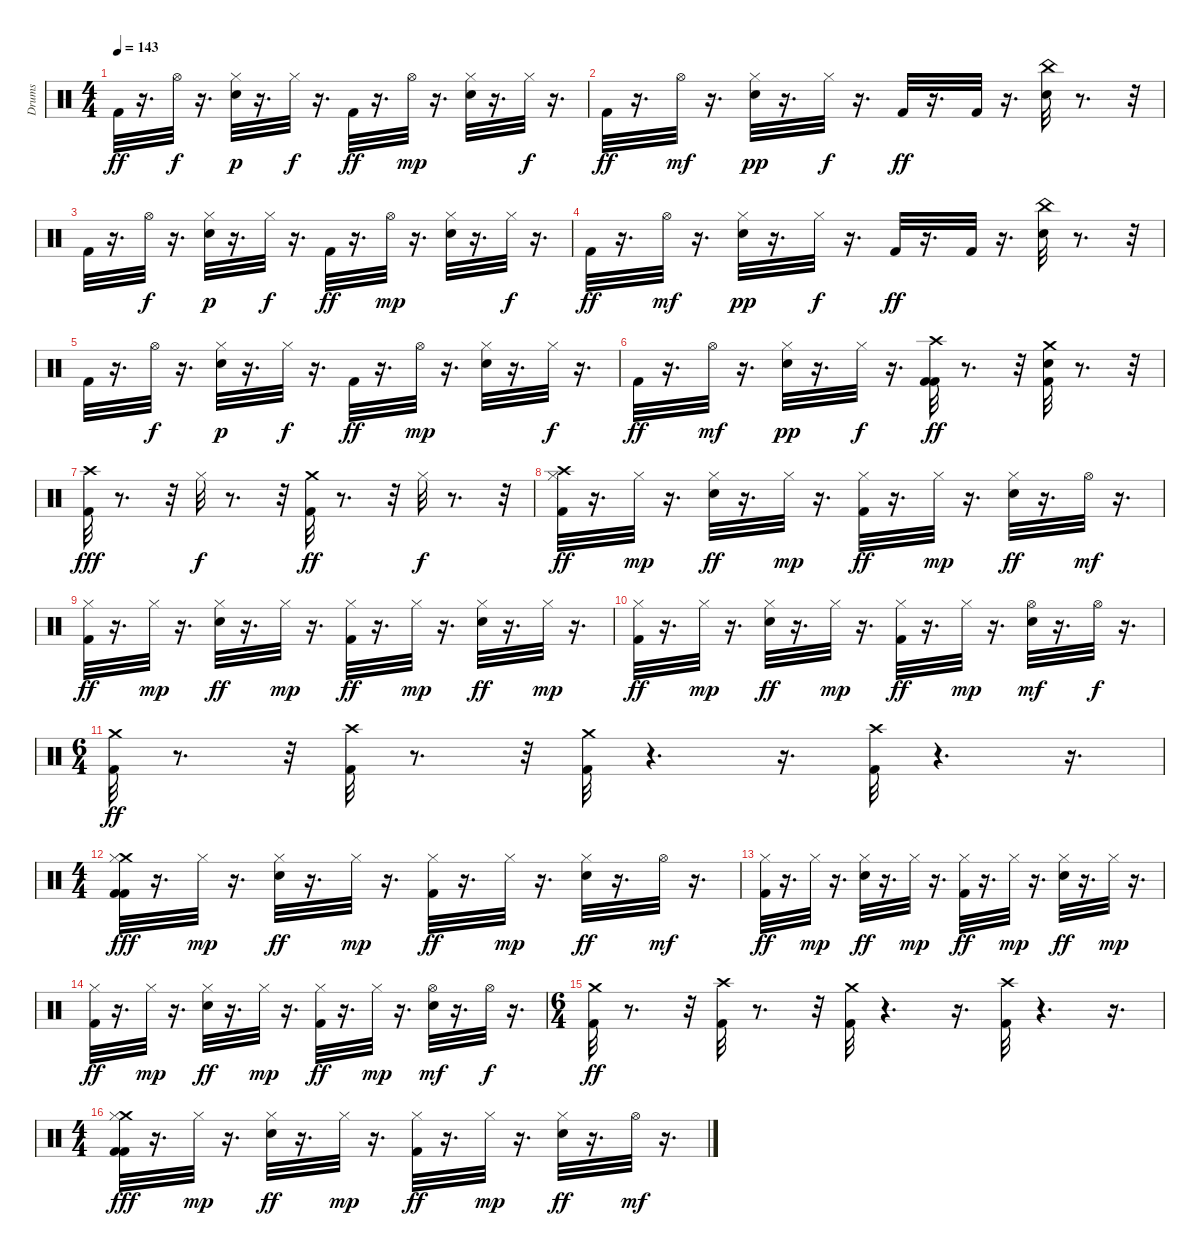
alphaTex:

\track ("Drums" "Drums") {instrument percussion}
\staff {score}
\articulation defaults
\ts (4 4)
\tempo 143
\clef neutral
\ks c "Kick (hit) 2".32{dy ff}
r.16{d} "Hi-Hat (open)".32{dy f} r.16{d} ("Snare (hit) 2" "Hi-Hat (closed)").32{dy p} r.16{d} "Hi-Hat (closed)".32{dy f} r.16{d} "Kick (hit) 2".32{dy ff} r.16{d} "Hi-Hat (open)".32{dy mp} r.16{d} ("Snare (hit) 2" "Hi-Hat (closed)").32 r.16{d} "Hi-Hat (closed)".32{dy f} r.16{d} |
"Kick (hit) 2".32{dy ff} r.16{d} "Hi-Hat (open)".32{dy mf} r.16{d} ("Snare (hit) 2" "Hi-Hat (closed)").32{dy pp} r.16{d} "Hi-Hat (closed)".32{dy f} r.16{d} "Kick (hit) 2".32{dy ff} r.16{d} "Kick (hit) 2".32 r.16{d} ("China (hit)" "Snare (hit) 2").32 r.8{d} r.32 |
"Kick (hit) 2".32 r.16{d} "Hi-Hat (open)".32{dy f} r.16{d} ("Snare (hit) 2" "Hi-Hat (closed)").32{dy p} r.16{d} "Hi-Hat (closed)".32{dy f} r.16{d} "Kick (hit) 2".32{dy ff} r.16{d} "Hi-Hat (open)".32{dy mp} r.16{d} ("Snare (hit) 2" "Hi-Hat (closed)").32 r.16{d} "Hi-Hat (closed)".32{dy f} r.16{d} |
"Kick (hit) 2".32{dy ff} r.16{d} "Hi-Hat (open)".32{dy mf} r.16{d} ("Snare (hit) 2" "Hi-Hat (closed)").32{dy pp} r.16{d} "Hi-Hat (closed)".32{dy f} r.16{d} "Kick (hit) 2".32{dy ff} r.16{d} "Kick (hit) 2".32 r.16{d} ("China (hit)" "Snare (hit) 2").32 r.8{d} r.32 |
"Kick (hit) 2".32 r.16{d} "Hi-Hat (open)".32{dy f} r.16{d} ("Snare (hit) 2" "Hi-Hat (closed)").32{dy p} r.16{d} "Hi-Hat (closed)".32{dy f} r.16{d} "Kick (hit) 2".32{dy ff} r.16{d} "Hi-Hat (open)".32{dy mp} r.16{d} ("Snare (hit) 2" "Hi-Hat (closed)").32 r.16{d} "Hi-Hat (closed)".32{dy f} r.16{d} |
"Kick (hit) 2".32{dy ff} r.16{d} "Hi-Hat (open)".32{dy mf} r.16{d} ("Snare (hit) 2" "Hi-Hat (closed)").32{dy pp} r.16{d} "Hi-Hat (closed)".32{dy f} r.16{d} ("Kick (hit) 2" "Kick (hit) 2" "Crash high (hit)").32{dy ff} r.8{d} r.32 ("Kick (hit) 2" "Crash medium (hit)" "Snare (hit) 2").32 r.8{d} r.32 |
("Kick (hit) 2" "Crash high (hit)").32{dy fff} r.8{d} r.32 "Hi-Hat (closed)".32{dy f} r.8{d} r.32 ("Kick (hit) 2" "Crash medium (hit)").32{dy ff} r.8{d} r.32 "Hi-Hat (closed)".32{dy f} r.8{d} r.32 |
("Kick (hit) 2" "Crash high (hit)" "Hi-Hat (closed)").32{dy ff} r.16{d} "Hi-Hat (closed)".32{dy mp} r.16{d} ("Snare (hit) 2" "Hi-Hat (closed)").32{dy ff} r.16{d} "Hi-Hat (closed)".32{dy mp} r.16{d} ("Kick (hit) 2" "Hi-Hat (closed)").32{dy ff} r.16{d} "Hi-Hat (closed)".32{dy mp} r.16{d} ("Snare (hit) 2" "Hi-Hat (closed)").32{dy ff} r.16{d} "Hi-Hat (open)".32{dy mf} r.16{d} |
("Kick (hit) 2" "Hi-Hat (closed)").32{dy ff} r.16{d} "Hi-Hat (closed)".32{dy mp} r.16{d} ("Snare (hit) 2" "Hi-Hat (closed)").32{dy ff} r.16{d} "Hi-Hat (closed)".32{dy mp} r.16{d} ("Kick (hit) 2" "Hi-Hat (closed)").32{dy ff} r.16{d} "Hi-Hat (closed)".32{dy mp} r.16{d} ("Snare (hit) 2" "Hi-Hat (closed)").32{dy ff} r.16{d} "Hi-Hat (closed)".32{dy mp} r.16{d} |
("Kick (hit) 2" "Hi-Hat (closed)").32{dy ff} r.16{d} "Hi-Hat (closed)".32{dy mp} r.16{d} ("Snare (hit) 2" "Hi-Hat (closed)").32{dy ff} r.16{d} "Hi-Hat (closed)".32{dy mp} r.16{d} ("Kick (hit) 2" "Hi-Hat (closed)").32{dy ff} r.16{d} "Hi-Hat (closed)".32{dy mp} r.16{d} ("Snare (hit) 2" "Hi-Hat (open)").32{dy mf} r.16{d} "Hi-Hat (open)".32{dy f} r.16{d} |
\ts (6 4)
("Crash medium (hit)" "Kick (hit) 2").32{dy ff} r.8{d} r.32 ("Kick (hit) 2" "Crash high (hit)").32 r.8{d} r.32 ("Kick (hit) 2" "Crash medium (hit)").32 r.4{d} r.16{d} ("Kick (hit) 2" "Crash high (hit)").32 r.4{d} r.16{d} |
\ts (4 4)
("Kick (hit) 2" "Crash medium (hit)" "Kick (hit) 2" "Hi-Hat (closed)").32{dy fff} r.16{d} "Hi-Hat (closed)".32{dy mp} r.16{d} ("Snare (hit) 2" "Hi-Hat (closed)").32{dy ff} r.16{d} "Hi-Hat (closed)".32{dy mp} r.16{d} ("Kick (hit) 2" "Hi-Hat (closed)").32{dy ff} r.16{d} "Hi-Hat (closed)".32{dy mp} r.16{d} ("Snare (hit) 2" "Hi-Hat (closed)").32{dy ff} r.16{d} "Hi-Hat (open)".32{dy mf} r.16{d} |
("Kick (hit) 2" "Hi-Hat (closed)").32{dy ff} r.16{d} "Hi-Hat (closed)".32{dy mp} r.16{d} ("Snare (hit) 2" "Hi-Hat (closed)").32{dy ff} r.16{d} "Hi-Hat (closed)".32{dy mp} r.16{d} ("Kick (hit) 2" "Hi-Hat (closed)").32{dy ff} r.16{d} "Hi-Hat (closed)".32{dy mp} r.16{d} ("Snare (hit) 2" "Hi-Hat (closed)").32{dy ff} r.16{d} "Hi-Hat (closed)".32{dy mp} r.16{d} |
("Kick (hit) 2" "Hi-Hat (closed)").32{dy ff} r.16{d} "Hi-Hat (closed)".32{dy mp} r.16{d} ("Snare (hit) 2" "Hi-Hat (closed)").32{dy ff} r.16{d} "Hi-Hat (closed)".32{dy mp} r.16{d} ("Kick (hit) 2" "Hi-Hat (closed)").32{dy ff} r.16{d} "Hi-Hat (closed)".32{dy mp} r.16{d} ("Snare (hit) 2" "Hi-Hat (open)").32{dy mf} r.16{d} "Hi-Hat (open)".32{dy f} r.16{d} |
\ts (6 4)
("Crash medium (hit)" "Kick (hit) 2").32{dy ff} r.8{d} r.32 ("Kick (hit) 2" "Crash high (hit)").32 r.8{d} r.32 ("Kick (hit) 2" "Crash medium (hit)").32 r.4{d} r.16{d} ("Kick (hit) 2" "Crash high (hit)").32 r.4{d} r.16{d} |
\ts (4 4)
("Kick (hit) 2" "Crash medium (hit)" "Kick (hit) 2" "Hi-Hat (closed)").32{dy fff} r.16{d} "Hi-Hat (closed)".32{dy mp} r.16{d} ("Snare (hit) 2" "Hi-Hat (closed)").32{dy ff} r.16{d} "Hi-Hat (closed)".32{dy mp} r.16{d} ("Kick (hit) 2" "Hi-Hat (closed)").32{dy ff} r.16{d} "Hi-Hat (closed)".32{dy mp} r.16{d} ("Snare (hit) 2" "Hi-Hat (closed)").32{dy ff} r.16{d} "Hi-Hat (open)".32{dy mf} r.16{d}
